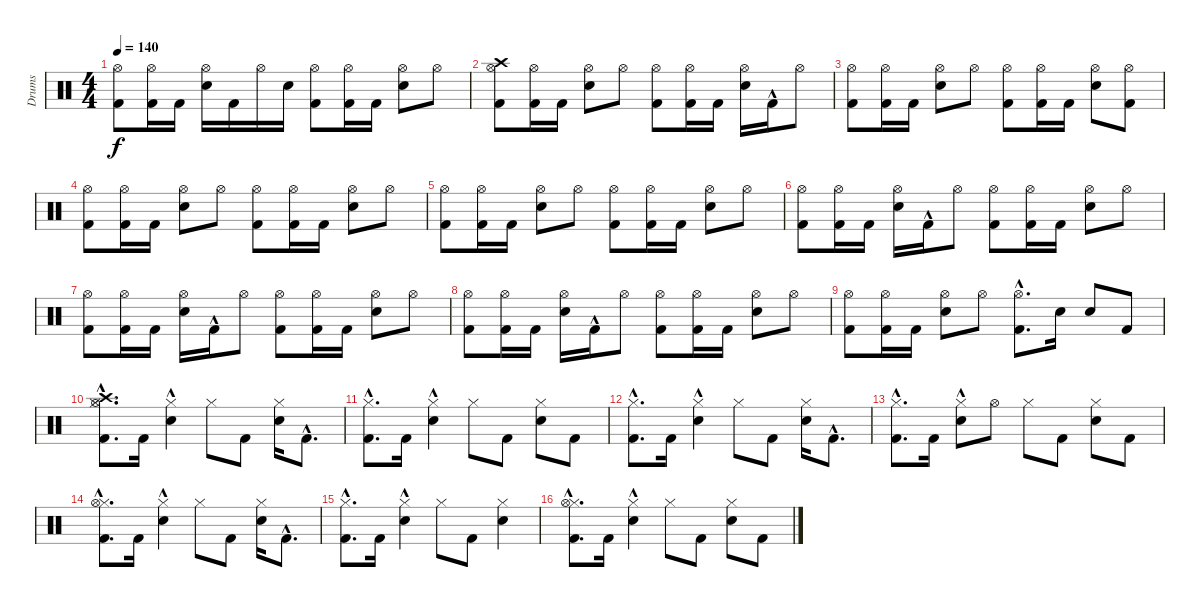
\track ("Drums" "Drums") {instrument percussion}
\staff {score}
\articulation defaults
\ts (4 4)
\tempo 140
\clef neutral
\ks c
("Kick (hit) 2" "Hi-Hat (open)").8{dy f} ("Hi-Hat (open)" "Kick (hit) 2").16 "Kick (hit) 2".16 ("Electric Snare (hit)" "Hi-Hat (open)").16 "Kick (hit) 2".16 "Hi-Hat (open)".16 "Electric Snare (hit)".16 ("Kick (hit) 2" "Hi-Hat (open)").8 ("Kick (hit) 2" "Hi-Hat (open)").16 "Kick (hit) 2".16 ("Electric Snare (hit)" "Hi-Hat (open)").8 "Hi-Hat (open)".8 |
("Crash high (hit)" "Hi-Hat (open)" "Kick (hit) 2").8 ("Hi-Hat (open)" "Kick (hit) 2").16 "Kick (hit) 2".16 ("Electric Snare (hit)" "Hi-Hat (open)").8 "Hi-Hat (open)".8 ("Hi-Hat (open)" "Kick (hit) 2").8 ("Kick (hit) 2" "Hi-Hat (open)").16 "Kick (hit) 2".16 ("Hi-Hat (open)" "Electric Snare (hit)").16 "Kick (hit) 2"{hac}.16 "Hi-Hat (open)".8 |
("Hi-Hat (open)" "Kick (hit) 2").8 ("Kick (hit) 2" "Hi-Hat (open)").16 "Kick (hit) 2".16 ("Hi-Hat (open)" "Electric Snare (hit)").8 "Hi-Hat (open)".8 ("Hi-Hat (open)" "Kick (hit) 2").8 ("Hi-Hat (open)" "Kick (hit) 2").16 "Kick (hit) 2".16 ("Hi-Hat (open)" "Electric Snare (hit)").8 ("Kick (hit) 2" "Hi-Hat (open)").8 |
("Hi-Hat (open)" "Kick (hit) 2").8 ("Kick (hit) 2" "Hi-Hat (open)").16 "Kick (hit) 2".16 ("Electric Snare (hit)" "Hi-Hat (open)").8 "Hi-Hat (open)".8 ("Hi-Hat (open)" "Kick (hit) 2").8 ("Hi-Hat (open)" "Kick (hit) 2").16 "Kick (hit) 2".16 ("Electric Snare (hit)" "Hi-Hat (open)").8 "Hi-Hat (open)".8 |
("Kick (hit) 2" "Hi-Hat (open)").8 ("Hi-Hat (open)" "Kick (hit) 2").16 "Kick (hit) 2".16 ("Electric Snare (hit)" "Hi-Hat (open)").8 "Hi-Hat (open)".8 ("Kick (hit) 2" "Hi-Hat (open)").8 ("Kick (hit) 2" "Hi-Hat (open)").16 "Kick (hit) 2".16 ("Electric Snare (hit)" "Hi-Hat (open)").8 "Hi-Hat (open)".8 |
("Hi-Hat (open)" "Kick (hit) 2").8 ("Hi-Hat (open)" "Kick (hit) 2").16 "Kick (hit) 2".16 ("Electric Snare (hit)" "Hi-Hat (open)").16 "Kick (hit) 2"{hac}.16 "Hi-Hat (open)".8 ("Hi-Hat (open)" "Kick (hit) 2").8 ("Kick (hit) 2" "Hi-Hat (open)").16 "Kick (hit) 2".16 ("Hi-Hat (open)" "Electric Snare (hit)").8 "Hi-Hat (open)".8 |
("Hi-Hat (open)" "Kick (hit) 2").8 ("Kick (hit) 2" "Hi-Hat (open)").16 "Kick (hit) 2".16 ("Hi-Hat (open)" "Electric Snare (hit)").16 "Kick (hit) 2"{hac}.16 "Hi-Hat (open)".8 ("Hi-Hat (open)" "Kick (hit) 2").8 ("Hi-Hat (open)" "Kick (hit) 2").16 "Kick (hit) 2".16 ("Hi-Hat (open)" "Electric Snare (hit)").8 "Hi-Hat (open)".8 |
("Hi-Hat (open)" "Kick (hit) 2").8 ("Kick (hit) 2" "Hi-Hat (open)").16 "Kick (hit) 2".16 ("Hi-Hat (open)" "Electric Snare (hit)").16 "Kick (hit) 2"{hac}.16 "Hi-Hat (open)".8 ("Hi-Hat (open)" "Kick (hit) 2").8 ("Hi-Hat (open)" "Kick (hit) 2").16 "Kick (hit) 2".16 ("Hi-Hat (open)" "Electric Snare (hit)").8 "Hi-Hat (open)".8 |
("Kick (hit) 2" "Hi-Hat (open)").8 ("Hi-Hat (open)" "Kick (hit) 2").16 "Kick (hit) 2".16 ("Electric Snare (hit)" "Hi-Hat (open)").8 "Hi-Hat (open)".8 ("Kick (hit) 2"{hac} "Hi-Hat (open)").8{d} "Electric Snare (hit)".16 "Electric Snare (hit)".8 "Kick (hit) 2".8 |
("Hi-Hat (closed)" "Hi-Hat (open)" "Crash high (hit)" "Kick (hit) 2"{hac}).8{d} "Kick (hit) 2".16 ("Hi-Hat (closed)" "Electric Snare (hit)"{hac}).4 "Hi-Hat (closed)".8 "Kick (hit) 2".8 ("Hi-Hat (closed)" "Electric Snare (hit)").16 "Kick (hit) 2"{hac}.8{d} |
("Hi-Hat (closed)" "Kick (hit) 2"{hac}).8{d} "Kick (hit) 2".16 ("Hi-Hat (closed)" "Electric Snare (hit)"{hac}).4 "Hi-Hat (closed)".8 "Kick (hit) 2".8 ("Hi-Hat (closed)" "Electric Snare (hit)").8 "Kick (hit) 2".8 |
("Hi-Hat (closed)" "Kick (hit) 2"{hac}).8{d} "Kick (hit) 2".16 ("Hi-Hat (closed)" "Electric Snare (hit)"{hac}).4 "Hi-Hat (closed)".8 "Kick (hit) 2".8 ("Hi-Hat (closed)" "Electric Snare (hit)").16 "Kick (hit) 2"{hac}.8{d} |
("Hi-Hat (closed)" "Kick (hit) 2"{hac}).8{d} "Kick (hit) 2".16 ("Hi-Hat (closed)" "Electric Snare (hit)"{hac}).8 "Hi-Hat (open)".8 "Hi-Hat (closed)".8 "Kick (hit) 2".8 ("Hi-Hat (closed)" "Electric Snare (hit)").8 "Kick (hit) 2".8 |
("Hi-Hat (closed)" "Hi-Hat (open)" "Kick (hit) 2"{hac}).8{d} "Kick (hit) 2".16 ("Hi-Hat (closed)" "Electric Snare (hit)"{hac}).4 "Hi-Hat (closed)".8 "Kick (hit) 2".8 ("Hi-Hat (closed)" "Electric Snare (hit)").16 "Kick (hit) 2"{hac}.8{d} |
("Hi-Hat (closed)" "Kick (hit) 2"{hac}).8{d} "Kick (hit) 2".16 ("Hi-Hat (closed)" "Electric Snare (hit)"{hac}).4 "Hi-Hat (closed)".8 "Kick (hit) 2".8 ("Hi-Hat (closed)" "Electric Snare (hit)").4 |
("Hi-Hat (closed)" "Hi-Hat (open)" "Kick (hit) 2"{hac}).8{d} "Kick (hit) 2".16 ("Hi-Hat (closed)" "Electric Snare (hit)"{hac}).4 "Hi-Hat (closed)".8 "Kick (hit) 2".8 ("Hi-Hat (closed)" "Electric Snare (hit)").8 "Kick (hit) 2".8
